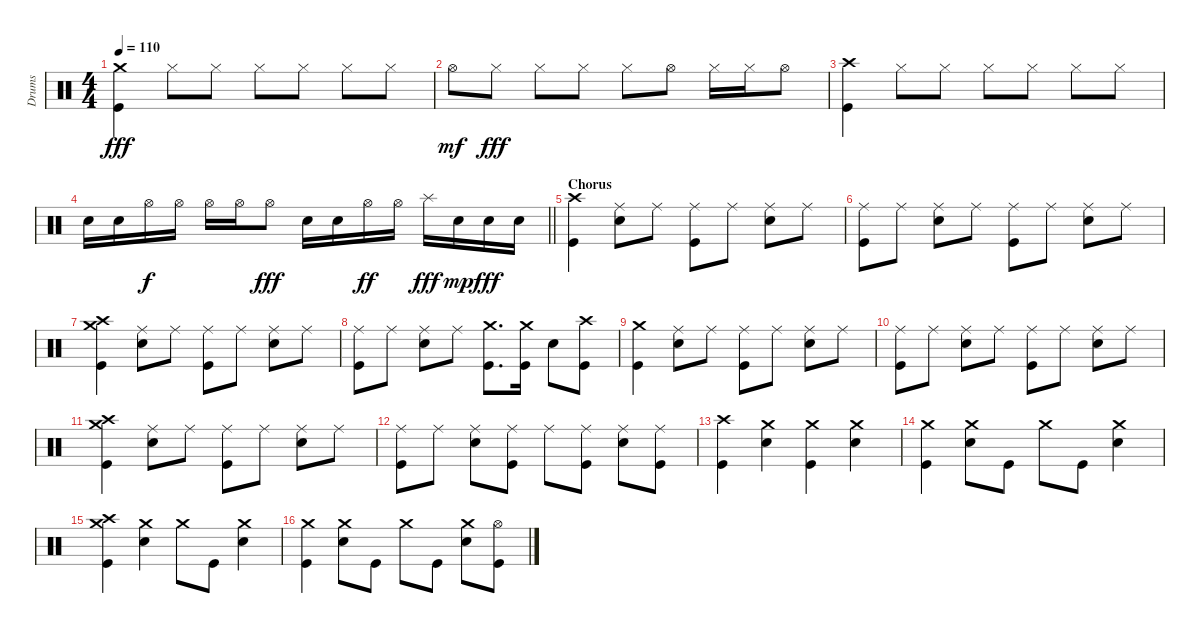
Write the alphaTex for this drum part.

\track ("Drums" "Drums") {instrument percussion}
\staff {score}
\articulation defaults
\ts (4 4)
\tempo 110
\clef neutral
\ks c
("Crash medium (hit)" "Kick (hit)").4{dy fff} "Hi-Hat (closed)".8 "Hi-Hat (closed)".8 "Hi-Hat (closed)".8 "Hi-Hat (closed)".8 "Hi-Hat (closed)".8 "Hi-Hat (closed)".8 |
"Hi-Hat (open)".8{dy mf} "Hi-Hat (closed)".8{dy fff} "Hi-Hat (closed)".8 "Hi-Hat (closed)".8 "Hi-Hat (closed)".8 "Hi-Hat (open)".8 "Hi-Hat (closed)".16 "Hi-Hat (closed)".16 "Hi-Hat (open)".8 |
("Crash high (hit)" "Kick (hit)").4 "Hi-Hat (closed)".8 "Hi-Hat (closed)".8 "Hi-Hat (closed)".8 "Hi-Hat (closed)".8 "Hi-Hat (closed)".8 "Hi-Hat (closed)".8 |
\barLineRight lightlight "Snare (hit) 2".16 "Snare (hit) 2".16 "Hi-Hat (open)".16{dy f} "Hi-Hat (open)".16 "Hi-Hat (open)".16 "Hi-Hat (open)".16 "Hi-Hat (open)".8{dy fff} "Snare (hit) 2".16 "Snare (hit) 2".16 "Hi-Hat (open)".16{dy ff} "Hi-Hat (open)".16 "Splash (hit)".16{dy fff} "Snare (hit) 2".16{dy mp} "Snare (hit) 2".16{dy fff} "Snare (hit) 2".16
|
\section ("" "Chorus")
("Crash high (hit)" "Kick (hit)").4 ("Ride (middle)" "Snare (hit) 2").8 "Ride (middle)".8 ("Ride (middle)" "Kick (hit)").8 "Ride (middle)".8 ("Ride (middle)" "Snare (hit) 2").8 "Ride (middle)".8 |
("Ride (middle)" "Kick (hit)").8 "Ride (middle)".8 ("Ride (middle)" "Snare (hit) 2").8 "Ride (middle)".8 ("Ride (middle)" "Kick (hit)").8 "Ride (middle)".8 ("Ride (middle)" "Snare (hit) 2").8 "Ride (middle)".8 |
("Crash medium (hit)" "Crash high (hit)" "Kick (hit)").4 ("Ride (middle)" "Snare (hit) 2").8 "Ride (middle)".8 ("Ride (middle)" "Kick (hit)").8 "Ride (middle)".8 ("Ride (middle)" "Snare (hit) 2").8 "Ride (middle)".8 |
("Ride (middle)" "Kick (hit)").8 "Ride (middle)".8 ("Ride (middle)" "Snare (hit) 2").8 "Ride (middle)".8 ("Crash medium (hit)" "Kick (hit)").8{d} ("Crash medium (hit)" "Kick (hit)").16 "Snare (hit) 2".8 ("Crash high (hit)" "Kick (hit)").8 |
("Crash medium (hit)" "Kick (hit)").4 ("Ride (middle)" "Snare (hit) 2").8 "Ride (middle)".8 ("Ride (middle)" "Kick (hit)").8 "Ride (middle)".8 ("Ride (middle)" "Snare (hit) 2").8 "Ride (middle)".8 |
("Ride (middle)" "Kick (hit)").8 "Ride (middle)".8 ("Ride (middle)" "Snare (hit) 2").8 "Ride (middle)".8 ("Ride (middle)" "Kick (hit)").8 "Ride (middle)".8 ("Ride (middle)" "Snare (hit) 2").8 "Ride (middle)".8 |
("Crash medium (hit)" "Crash high (hit)" "Kick (hit)").4 ("Ride (middle)" "Snare (hit) 2").8 "Ride (middle)".8 ("Ride (middle)" "Kick (hit)").8 "Ride (middle)".8 ("Ride (middle)" "Snare (hit) 2").8 "Ride (middle)".8 |
("Ride (middle)" "Kick (hit)").8 "Ride (middle)".8 ("Ride (middle)" "Snare (hit) 2").8 ("Ride (middle)" "Kick (hit)").8 "Ride (middle)".8 ("Ride (middle)" "Kick (hit)").8 ("Ride (middle)" "Snare (hit) 2").8 ("Ride (middle)" "Kick (hit)").8 |
("Crash high (hit)" "Kick (hit)").4 ("Crash medium (hit)" "Snare (hit) 2").4 ("Crash medium (hit)" "Kick (hit)").4 ("Crash medium (hit)" "Snare (hit) 2").4 |
("Crash medium (hit)" "Kick (hit)").4 ("Crash medium (hit)" "Snare (hit) 2").8 "Kick (hit)".8 "Crash medium (hit)".8 "Kick (hit)".8 ("Crash medium (hit)" "Snare (hit) 2").4 |
("Crash medium (hit)" "Crash high (hit)" "Kick (hit)").4 ("Crash medium (hit)" "Snare (hit) 2").4 "Crash medium (hit)".8 "Kick (hit)".8 ("Crash medium (hit)" "Snare (hit) 2").4 |
("Crash medium (hit)" "Kick (hit)").4 ("Crash medium (hit)" "Snare (hit) 2").8 "Kick (hit)".8 "Crash medium (hit)".8 "Kick (hit)".8 ("Crash medium (hit)" "Snare (hit) 2").8 ("Hi-Hat (open)" "Kick (hit)").8
